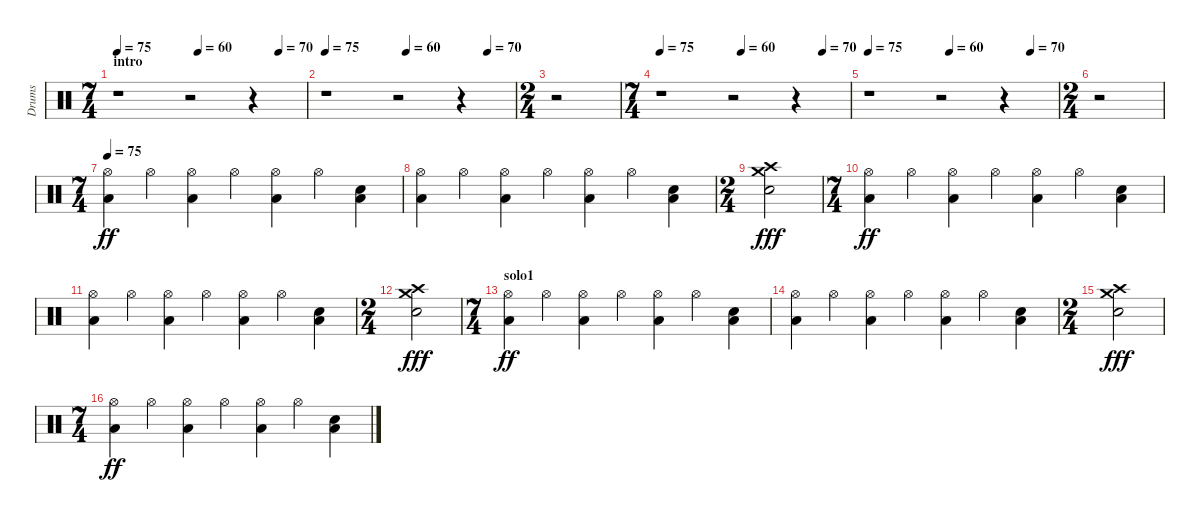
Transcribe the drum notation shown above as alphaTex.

\track ("Drums" "Drums") {instrument percussion}
\staff {score}
\articulation defaults
\ts (7 4)
\section ("" "intro")
\tempo 75
\tempo (60 0.42857142857142855)
\tempo (70 0.8571428571428571)
\tempo 75
\clef neutral
\ks c
r.1{dy ff} r.2 r.4 |
\tempo 75
\tempo (60 0.42857142857142855)
\tempo (70 0.8571428571428571)
r.1 r.2 r.4 |
\ts (2 4)
r.2 |
\ts (7 4)
\tempo 75
\tempo (60 0.42857142857142855)
\tempo (70 0.8571428571428571)
r.1 r.2 r.4 |
\tempo 75
\tempo (60 0.42857142857142855)
\tempo (70 0.8571428571428571)
r.1 r.2 r.4 |
\ts (2 4)
r.2 |
\ts (7 4)
\tempo 75
("Hi-Hat (open)" "Low Tom (hit)").4 "Hi-Hat (open)".4 ("Low Tom (hit)" "Hi-Hat (open)").4 "Hi-Hat (open)".4 ("Hi-Hat (open)" "Low Tom (hit)").4 "Hi-Hat (open)".4 ("Electric Snare (hit)" "Low Tom (hit)").4 |
("Hi-Hat (open)" "Low Tom (hit)").4 "Hi-Hat (open)".4 ("Low Tom (hit)" "Hi-Hat (open)").4 "Hi-Hat (open)".4 ("Hi-Hat (open)" "Low Tom (hit)").4 "Hi-Hat (open)".4 ("Electric Snare (hit)" "Low Tom (hit)").4 |
\ts (2 4)
("Crash high (hit)" "Crash medium (hit)" "Electric Snare (hit)").2{dy fff} |
\ts (7 4)
("Hi-Hat (open)" "Low Tom (hit)").4{dy ff} "Hi-Hat (open)".4 ("Low Tom (hit)" "Hi-Hat (open)").4 "Hi-Hat (open)".4 ("Hi-Hat (open)" "Low Tom (hit)").4 "Hi-Hat (open)".4 ("Electric Snare (hit)" "Low Tom (hit)").4 |
("Hi-Hat (open)" "Low Tom (hit)").4 "Hi-Hat (open)".4 ("Low Tom (hit)" "Hi-Hat (open)").4 "Hi-Hat (open)".4 ("Hi-Hat (open)" "Low Tom (hit)").4 "Hi-Hat (open)".4 ("Electric Snare (hit)" "Low Tom (hit)").4 |
\ts (2 4)
("Crash high (hit)" "Crash medium (hit)" "Electric Snare (hit)").2{dy fff} |
\ts (7 4)
\section ("" "solo1")
("Hi-Hat (open)" "Low Tom (hit)").4{dy ff} "Hi-Hat (open)".4 ("Low Tom (hit)" "Hi-Hat (open)").4 "Hi-Hat (open)".4 ("Hi-Hat (open)" "Low Tom (hit)").4 "Hi-Hat (open)".4 ("Electric Snare (hit)" "Low Tom (hit)").4 |
("Hi-Hat (open)" "Low Tom (hit)").4 "Hi-Hat (open)".4 ("Low Tom (hit)" "Hi-Hat (open)").4 "Hi-Hat (open)".4 ("Hi-Hat (open)" "Low Tom (hit)").4 "Hi-Hat (open)".4 ("Electric Snare (hit)" "Low Tom (hit)").4 |
\ts (2 4)
("Crash high (hit)" "Crash medium (hit)" "Electric Snare (hit)").2{dy fff} |
\ts (7 4)
("Hi-Hat (open)" "Low Tom (hit)").4{dy ff} "Hi-Hat (open)".4 ("Low Tom (hit)" "Hi-Hat (open)").4 "Hi-Hat (open)".4 ("Hi-Hat (open)" "Low Tom (hit)").4 "Hi-Hat (open)".4 ("Electric Snare (hit)" "Low Tom (hit)").4
